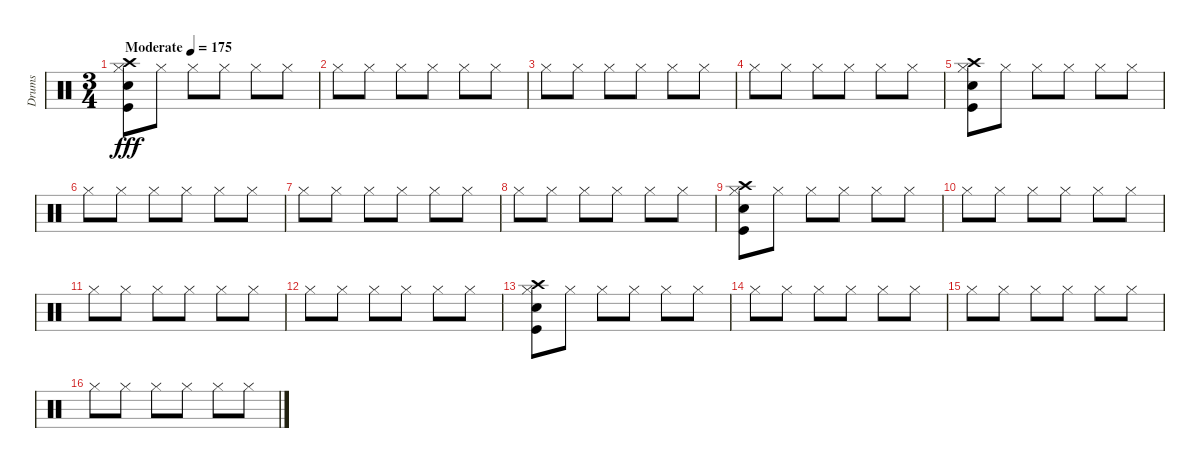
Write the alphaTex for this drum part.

\track ("Drums" "Drums") {instrument percussion}
\staff {score}
\articulation defaults
\ts (3 4)
\tempo (175 "Moderate")
\clef neutral
\ks c
("Hi-Hat (closed)" "Crash high (hit)" "Snare (hit) 2" "Kick (hit)").8{dy fff} "Hi-Hat (closed)".8 "Hi-Hat (closed)".8 "Hi-Hat (closed)".8 "Hi-Hat (closed)".8 "Hi-Hat (closed)".8 |
"Hi-Hat (closed)".8 "Hi-Hat (closed)".8 "Hi-Hat (closed)".8 "Hi-Hat (closed)".8 "Hi-Hat (closed)".8 "Hi-Hat (closed)".8 |
"Hi-Hat (closed)".8 "Hi-Hat (closed)".8 "Hi-Hat (closed)".8 "Hi-Hat (closed)".8 "Hi-Hat (closed)".8 "Hi-Hat (closed)".8 |
"Hi-Hat (closed)".8 "Hi-Hat (closed)".8 "Hi-Hat (closed)".8 "Hi-Hat (closed)".8 "Hi-Hat (closed)".8 "Hi-Hat (closed)".8 |
("Hi-Hat (closed)" "Crash high (hit)" "Snare (hit) 2" "Kick (hit)").8 "Hi-Hat (closed)".8 "Hi-Hat (closed)".8 "Hi-Hat (closed)".8 "Hi-Hat (closed)".8 "Hi-Hat (closed)".8 |
"Hi-Hat (closed)".8 "Hi-Hat (closed)".8 "Hi-Hat (closed)".8 "Hi-Hat (closed)".8 "Hi-Hat (closed)".8 "Hi-Hat (closed)".8 |
"Hi-Hat (closed)".8 "Hi-Hat (closed)".8 "Hi-Hat (closed)".8 "Hi-Hat (closed)".8 "Hi-Hat (closed)".8 "Hi-Hat (closed)".8 |
"Hi-Hat (closed)".8 "Hi-Hat (closed)".8 "Hi-Hat (closed)".8 "Hi-Hat (closed)".8 "Hi-Hat (closed)".8 "Hi-Hat (closed)".8 |
("Hi-Hat (closed)" "Crash high (hit)" "Snare (hit) 2" "Kick (hit)").8 "Hi-Hat (closed)".8 "Hi-Hat (closed)".8 "Hi-Hat (closed)".8 "Hi-Hat (closed)".8 "Hi-Hat (closed)".8 |
"Hi-Hat (closed)".8 "Hi-Hat (closed)".8 "Hi-Hat (closed)".8 "Hi-Hat (closed)".8 "Hi-Hat (closed)".8 "Hi-Hat (closed)".8 |
"Hi-Hat (closed)".8 "Hi-Hat (closed)".8 "Hi-Hat (closed)".8 "Hi-Hat (closed)".8 "Hi-Hat (closed)".8 "Hi-Hat (closed)".8 |
"Hi-Hat (closed)".8 "Hi-Hat (closed)".8 "Hi-Hat (closed)".8 "Hi-Hat (closed)".8 "Hi-Hat (closed)".8 "Hi-Hat (closed)".8 |
("Hi-Hat (closed)" "Crash high (hit)" "Snare (hit) 2" "Kick (hit)").8 "Hi-Hat (closed)".8 "Hi-Hat (closed)".8 "Hi-Hat (closed)".8 "Hi-Hat (closed)".8 "Hi-Hat (closed)".8 |
"Hi-Hat (closed)".8 "Hi-Hat (closed)".8 "Hi-Hat (closed)".8 "Hi-Hat (closed)".8 "Hi-Hat (closed)".8 "Hi-Hat (closed)".8 |
"Hi-Hat (closed)".8 "Hi-Hat (closed)".8 "Hi-Hat (closed)".8 "Hi-Hat (closed)".8 "Hi-Hat (closed)".8 "Hi-Hat (closed)".8 |
"Hi-Hat (closed)".8 "Hi-Hat (closed)".8 "Hi-Hat (closed)".8 "Hi-Hat (closed)".8 "Hi-Hat (closed)".8 "Hi-Hat (closed)".8
